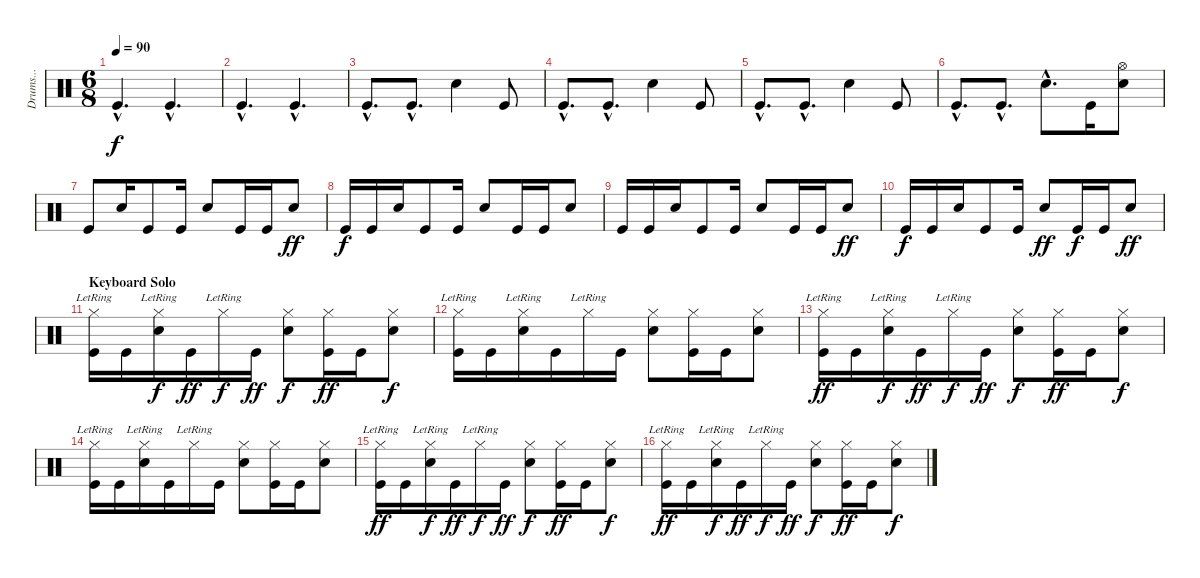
\track ("Drums..." "Drums...") {instrument percussion}
\staff {score}
\articulation defaults
\ts (6 8)
\tempo 90
\clef neutral
\ks c "Kick (hit)"{hac}.4{d dy f} "Kick (hit)"{hac}.4{d}
|
"Kick (hit)"{hac}.4{d} "Kick (hit)"{hac}.4{d} |
"Kick (hit)"{hac}.8{d} "Kick (hit)"{hac}.8{d} "Electric Snare (hit)".4 "Kick (hit)".8 |
"Kick (hit)"{hac}.8{d} "Kick (hit)"{hac}.8{d} "Electric Snare (hit)".4 "Kick (hit)".8 |
"Kick (hit)"{hac}.8{d} "Kick (hit)"{hac}.8{d} "Electric Snare (hit)".4 "Kick (hit)".8 |
"Kick (hit)"{hac}.8{d} "Kick (hit)"{hac}.8{d} "Electric Snare (hit)"{hac}.8{d} "Kick (hit)".16 ("Hi-Hat (open)" "Electric Snare (hit)").8 |
"Kick (hit)".8 "Electric Snare (hit)".16 "Kick (hit)".8 "Kick (hit)".16 "Electric Snare (hit)".8 "Kick (hit)".16 "Kick (hit)".16 "Electric Snare (hit)".8{dy ff} |
"Kick (hit)".16{dy f} "Kick (hit)".16 "Electric Snare (hit)".16 "Kick (hit)".8 "Kick (hit)".16 "Electric Snare (hit)".8 "Kick (hit)".16 "Kick (hit)".16 "Electric Snare (hit)".8 |
"Kick (hit)".16 "Kick (hit)".16 "Electric Snare (hit)".16 "Kick (hit)".8 "Kick (hit)".16 "Electric Snare (hit)".8 "Kick (hit)".16 "Kick (hit)".16 "Electric Snare (hit)".8{dy ff} |
"Kick (hit)".16{dy f} "Kick (hit)".16 "Electric Snare (hit)".16 "Kick (hit)".8 "Kick (hit)".16 "Electric Snare (hit)".8{dy ff} "Kick (hit)".16{dy f} "Kick (hit)".16 "Electric Snare (hit)".8{dy ff} |
\section ("" "Keyboard Solo")
("Hi-Hat (closed)"{lr} "Kick (hit)").16 "Kick (hit)".16 ("Hi-Hat (closed)"{lr} "Electric Snare (hit)").16{dy f} "Kick (hit)".16{dy ff} "Hi-Hat (closed)"{lr}.16{dy f} "Kick (hit)".16{dy ff} ("Hi-Hat (closed)" "Electric Snare (hit)").8{dy f} ("Hi-Hat (closed)" "Kick (hit)").16{dy ff} "Kick (hit)".16 ("Hi-Hat (closed)" "Electric Snare (hit)").8{dy f} |
("Hi-Hat (closed)"{lr} "Kick (hit)").16 "Kick (hit)".16 ("Hi-Hat (closed)"{lr} "Electric Snare (hit)").16 "Kick (hit)".16 "Hi-Hat (closed)"{lr}.16 "Kick (hit)".16 ("Hi-Hat (closed)" "Electric Snare (hit)").8 ("Hi-Hat (closed)" "Kick (hit)").16 "Kick (hit)".16 ("Hi-Hat (closed)" "Electric Snare (hit)").8 |
("Hi-Hat (closed)"{lr} "Kick (hit)").16{dy ff} "Kick (hit)".16 ("Hi-Hat (closed)"{lr} "Electric Snare (hit)").16{dy f} "Kick (hit)".16{dy ff} "Hi-Hat (closed)"{lr}.16{dy f} "Kick (hit)".16{dy ff} ("Hi-Hat (closed)" "Electric Snare (hit)").8{dy f} ("Hi-Hat (closed)" "Kick (hit)").16{dy ff} "Kick (hit)".16 ("Hi-Hat (closed)" "Electric Snare (hit)").8{dy f} |
("Hi-Hat (closed)"{lr} "Kick (hit)").16 "Kick (hit)".16 ("Hi-Hat (closed)"{lr} "Electric Snare (hit)").16 "Kick (hit)".16 "Hi-Hat (closed)"{lr}.16 "Kick (hit)".16 ("Hi-Hat (closed)" "Electric Snare (hit)").8 ("Hi-Hat (closed)" "Kick (hit)").16 "Kick (hit)".16 ("Hi-Hat (closed)" "Electric Snare (hit)").8 |
("Hi-Hat (closed)"{lr} "Kick (hit)").16{dy ff} "Kick (hit)".16 ("Hi-Hat (closed)"{lr} "Electric Snare (hit)").16{dy f} "Kick (hit)".16{dy ff} "Hi-Hat (closed)"{lr}.16{dy f} "Kick (hit)".16{dy ff} ("Hi-Hat (closed)" "Electric Snare (hit)").8{dy f} ("Hi-Hat (closed)" "Kick (hit)").16{dy ff} "Kick (hit)".16 ("Hi-Hat (closed)" "Electric Snare (hit)").8{dy f} |
("Hi-Hat (closed)"{lr} "Kick (hit)").16{dy ff} "Kick (hit)".16 ("Hi-Hat (closed)"{lr} "Electric Snare (hit)").16{dy f} "Kick (hit)".16{dy ff} "Hi-Hat (closed)"{lr}.16{dy f} "Kick (hit)".16{dy ff} ("Hi-Hat (closed)" "Electric Snare (hit)").8{dy f} ("Hi-Hat (closed)" "Kick (hit)").16{dy ff} "Kick (hit)".16 ("Hi-Hat (closed)" "Electric Snare (hit)").8{dy f}
